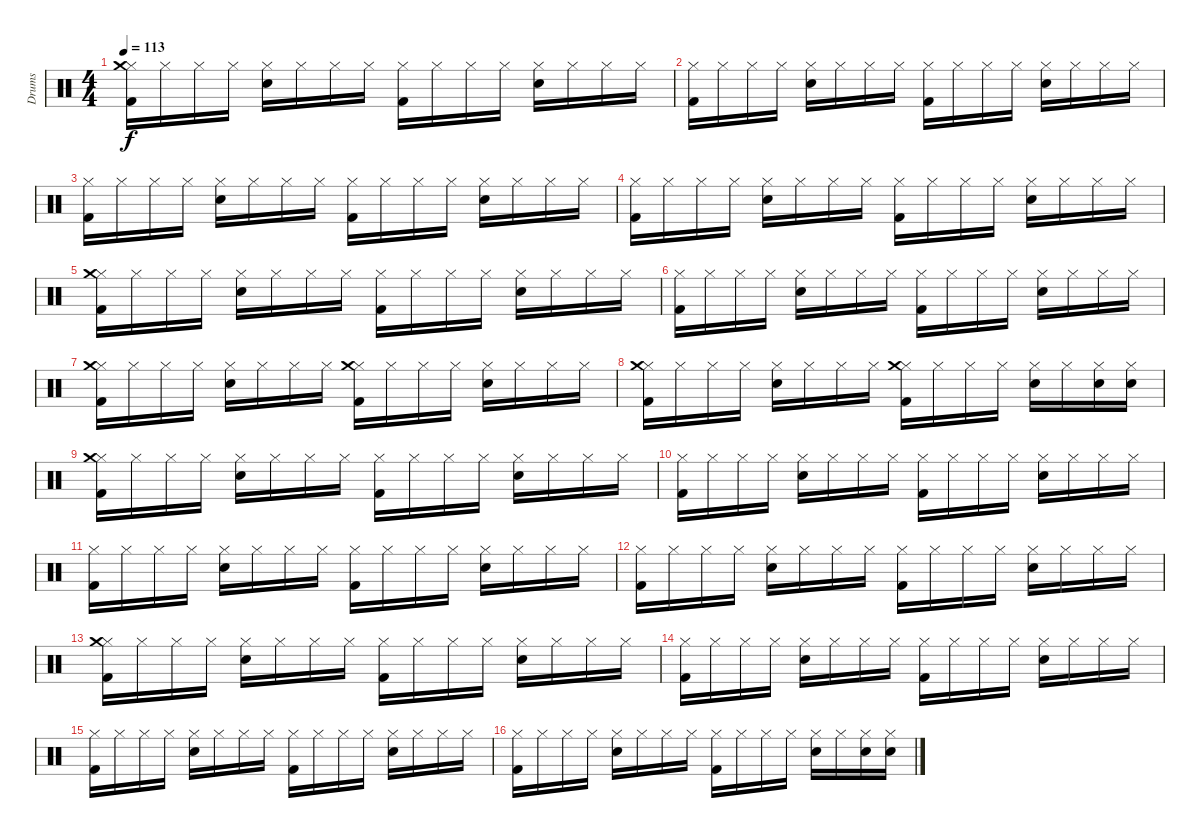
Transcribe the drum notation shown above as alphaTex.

\track ("Drums" "Drums") {instrument percussion}
\staff {score}
\articulation defaults
\ts (4 4)
\tempo 113
\clef neutral
\ks c
("Hi-Hat (closed)" "Kick (hit) 2" "Crash medium (hit)").16{dy f} "Hi-Hat (closed)".16 "Hi-Hat (closed)".16 "Hi-Hat (closed)".16 ("Hi-Hat (closed)" "Electric Snare (hit)").16 "Hi-Hat (closed)".16 "Hi-Hat (closed)".16 "Hi-Hat (closed)".16 ("Hi-Hat (closed)" "Kick (hit) 2").16 "Hi-Hat (closed)".16 "Hi-Hat (closed)".16 "Hi-Hat (closed)".16 ("Hi-Hat (closed)" "Electric Snare (hit)").16 "Hi-Hat (closed)".16 "Hi-Hat (closed)".16 "Hi-Hat (closed)".16 |
("Hi-Hat (closed)" "Kick (hit) 2").16 "Hi-Hat (closed)".16 "Hi-Hat (closed)".16 "Hi-Hat (closed)".16 ("Hi-Hat (closed)" "Electric Snare (hit)").16 "Hi-Hat (closed)".16 "Hi-Hat (closed)".16 "Hi-Hat (closed)".16 ("Hi-Hat (closed)" "Kick (hit) 2").16 "Hi-Hat (closed)".16 "Hi-Hat (closed)".16 "Hi-Hat (closed)".16 ("Hi-Hat (closed)" "Electric Snare (hit)").16 "Hi-Hat (closed)".16 "Hi-Hat (closed)".16 "Hi-Hat (closed)".16 |
("Hi-Hat (closed)" "Kick (hit) 2").16 "Hi-Hat (closed)".16 "Hi-Hat (closed)".16 "Hi-Hat (closed)".16 ("Hi-Hat (closed)" "Electric Snare (hit)").16 "Hi-Hat (closed)".16 "Hi-Hat (closed)".16 "Hi-Hat (closed)".16 ("Hi-Hat (closed)" "Kick (hit) 2").16 "Hi-Hat (closed)".16 "Hi-Hat (closed)".16 "Hi-Hat (closed)".16 ("Hi-Hat (closed)" "Electric Snare (hit)").16 "Hi-Hat (closed)".16 "Hi-Hat (closed)".16 "Hi-Hat (closed)".16 |
("Hi-Hat (closed)" "Kick (hit) 2").16 "Hi-Hat (closed)".16 "Hi-Hat (closed)".16 "Hi-Hat (closed)".16 ("Hi-Hat (closed)" "Electric Snare (hit)").16 "Hi-Hat (closed)".16 "Hi-Hat (closed)".16 "Hi-Hat (closed)".16 ("Hi-Hat (closed)" "Kick (hit) 2").16 "Hi-Hat (closed)".16 "Hi-Hat (closed)".16 "Hi-Hat (closed)".16 ("Hi-Hat (closed)" "Electric Snare (hit)").16 "Hi-Hat (closed)".16 "Hi-Hat (closed)".16 "Hi-Hat (closed)".16 |
("Hi-Hat (closed)" "Kick (hit) 2" "Crash medium (hit)").16 "Hi-Hat (closed)".16 "Hi-Hat (closed)".16 "Hi-Hat (closed)".16 ("Hi-Hat (closed)" "Electric Snare (hit)").16 "Hi-Hat (closed)".16 "Hi-Hat (closed)".16 "Hi-Hat (closed)".16 ("Hi-Hat (closed)" "Kick (hit) 2").16 "Hi-Hat (closed)".16 "Hi-Hat (closed)".16 "Hi-Hat (closed)".16 ("Hi-Hat (closed)" "Electric Snare (hit)").16 "Hi-Hat (closed)".16 "Hi-Hat (closed)".16 "Hi-Hat (closed)".16 |
("Hi-Hat (closed)" "Kick (hit) 2").16 "Hi-Hat (closed)".16 "Hi-Hat (closed)".16 "Hi-Hat (closed)".16 ("Hi-Hat (closed)" "Electric Snare (hit)").16 "Hi-Hat (closed)".16 "Hi-Hat (closed)".16 "Hi-Hat (closed)".16 ("Hi-Hat (closed)" "Kick (hit) 2").16 "Hi-Hat (closed)".16 "Hi-Hat (closed)".16 "Hi-Hat (closed)".16 ("Hi-Hat (closed)" "Electric Snare (hit)").16 "Hi-Hat (closed)".16 "Hi-Hat (closed)".16 "Hi-Hat (closed)".16 |
("Hi-Hat (closed)" "Kick (hit) 2" "Crash medium (hit)").16 "Hi-Hat (closed)".16 "Hi-Hat (closed)".16 "Hi-Hat (closed)".16 ("Hi-Hat (closed)" "Electric Snare (hit)").16 "Hi-Hat (closed)".16 "Hi-Hat (closed)".16 "Hi-Hat (closed)".16 ("Hi-Hat (closed)" "Kick (hit) 2" "Crash medium (hit)").16 "Hi-Hat (closed)".16 "Hi-Hat (closed)".16 "Hi-Hat (closed)".16 ("Hi-Hat (closed)" "Electric Snare (hit)").16 "Hi-Hat (closed)".16 "Hi-Hat (closed)".16 "Hi-Hat (closed)".16 |
("Hi-Hat (closed)" "Kick (hit) 2" "Crash medium (hit)").16 "Hi-Hat (closed)".16 "Hi-Hat (closed)".16 "Hi-Hat (closed)".16 ("Hi-Hat (closed)" "Electric Snare (hit)").16 "Hi-Hat (closed)".16 "Hi-Hat (closed)".16 "Hi-Hat (closed)".16 ("Hi-Hat (closed)" "Kick (hit) 2" "Crash medium (hit)").16 "Hi-Hat (closed)".16 "Hi-Hat (closed)".16 "Hi-Hat (closed)".16 ("Hi-Hat (closed)" "Electric Snare (hit)").16 "Hi-Hat (closed)".16 ("Hi-Hat (closed)" "Electric Snare (hit)").16 ("Hi-Hat (closed)" "Electric Snare (hit)").16 |
("Hi-Hat (closed)" "Crash medium (hit)" "Kick (hit) 2").16 "Hi-Hat (closed)".16 "Hi-Hat (closed)".16 "Hi-Hat (closed)".16 ("Hi-Hat (closed)" "Electric Snare (hit)").16 "Hi-Hat (closed)".16 "Hi-Hat (closed)".16 "Hi-Hat (closed)".16 ("Hi-Hat (closed)" "Kick (hit) 2").16 "Hi-Hat (closed)".16 "Hi-Hat (closed)".16 "Hi-Hat (closed)".16 ("Hi-Hat (closed)" "Electric Snare (hit)").16 "Hi-Hat (closed)".16 "Hi-Hat (closed)".16 "Hi-Hat (closed)".16 |
("Hi-Hat (closed)" "Kick (hit) 2").16 "Hi-Hat (closed)".16 "Hi-Hat (closed)".16 "Hi-Hat (closed)".16 ("Hi-Hat (closed)" "Electric Snare (hit)").16 "Hi-Hat (closed)".16 "Hi-Hat (closed)".16 "Hi-Hat (closed)".16 ("Hi-Hat (closed)" "Kick (hit) 2").16 "Hi-Hat (closed)".16 "Hi-Hat (closed)".16 "Hi-Hat (closed)".16 ("Hi-Hat (closed)" "Electric Snare (hit)").16 "Hi-Hat (closed)".16 "Hi-Hat (closed)".16 "Hi-Hat (closed)".16 |
("Hi-Hat (closed)" "Kick (hit) 2").16 "Hi-Hat (closed)".16 "Hi-Hat (closed)".16 "Hi-Hat (closed)".16 ("Hi-Hat (closed)" "Electric Snare (hit)").16 "Hi-Hat (closed)".16 "Hi-Hat (closed)".16 "Hi-Hat (closed)".16 ("Hi-Hat (closed)" "Kick (hit) 2").16 "Hi-Hat (closed)".16 "Hi-Hat (closed)".16 "Hi-Hat (closed)".16 ("Hi-Hat (closed)" "Electric Snare (hit)").16 "Hi-Hat (closed)".16 "Hi-Hat (closed)".16 "Hi-Hat (closed)".16 |
("Hi-Hat (closed)" "Kick (hit) 2").16 "Hi-Hat (closed)".16 "Hi-Hat (closed)".16 "Hi-Hat (closed)".16 ("Hi-Hat (closed)" "Electric Snare (hit)").16 "Hi-Hat (closed)".16 "Hi-Hat (closed)".16 "Hi-Hat (closed)".16 ("Hi-Hat (closed)" "Kick (hit) 2").16 "Hi-Hat (closed)".16 "Hi-Hat (closed)".16 "Hi-Hat (closed)".16 ("Hi-Hat (closed)" "Electric Snare (hit)").16 "Hi-Hat (closed)".16 "Hi-Hat (closed)".16 "Hi-Hat (closed)".16 |
("Hi-Hat (closed)" "Kick (hit) 2" "Crash medium (hit)").16 "Hi-Hat (closed)".16 "Hi-Hat (closed)".16 "Hi-Hat (closed)".16 ("Hi-Hat (closed)" "Electric Snare (hit)").16 "Hi-Hat (closed)".16 "Hi-Hat (closed)".16 "Hi-Hat (closed)".16 ("Hi-Hat (closed)" "Kick (hit) 2").16 "Hi-Hat (closed)".16 "Hi-Hat (closed)".16 "Hi-Hat (closed)".16 ("Hi-Hat (closed)" "Electric Snare (hit)").16 "Hi-Hat (closed)".16 "Hi-Hat (closed)".16 "Hi-Hat (closed)".16 |
("Hi-Hat (closed)" "Kick (hit) 2").16 "Hi-Hat (closed)".16 "Hi-Hat (closed)".16 "Hi-Hat (closed)".16 ("Hi-Hat (closed)" "Electric Snare (hit)").16 "Hi-Hat (closed)".16 "Hi-Hat (closed)".16 "Hi-Hat (closed)".16 ("Hi-Hat (closed)" "Kick (hit) 2").16 "Hi-Hat (closed)".16 "Hi-Hat (closed)".16 "Hi-Hat (closed)".16 ("Hi-Hat (closed)" "Electric Snare (hit)").16 "Hi-Hat (closed)".16 "Hi-Hat (closed)".16 "Hi-Hat (closed)".16 |
("Hi-Hat (closed)" "Kick (hit) 2").16 "Hi-Hat (closed)".16 "Hi-Hat (closed)".16 "Hi-Hat (closed)".16 ("Hi-Hat (closed)" "Electric Snare (hit)").16 "Hi-Hat (closed)".16 "Hi-Hat (closed)".16 "Hi-Hat (closed)".16 ("Hi-Hat (closed)" "Kick (hit) 2").16 "Hi-Hat (closed)".16 "Hi-Hat (closed)".16 "Hi-Hat (closed)".16 ("Hi-Hat (closed)" "Electric Snare (hit)").16 "Hi-Hat (closed)".16 "Hi-Hat (closed)".16 "Hi-Hat (closed)".16 |
("Hi-Hat (closed)" "Kick (hit) 2").16 "Hi-Hat (closed)".16 "Hi-Hat (closed)".16 "Hi-Hat (closed)".16 ("Hi-Hat (closed)" "Electric Snare (hit)").16 "Hi-Hat (closed)".16 "Hi-Hat (closed)".16 "Hi-Hat (closed)".16 ("Hi-Hat (closed)" "Kick (hit) 2").16 "Hi-Hat (closed)".16 "Hi-Hat (closed)".16 "Hi-Hat (closed)".16 ("Hi-Hat (closed)" "Electric Snare (hit)").16 "Hi-Hat (closed)".16 ("Hi-Hat (closed)" "Electric Snare (hit)").16 ("Hi-Hat (closed)" "Electric Snare (hit)").16
